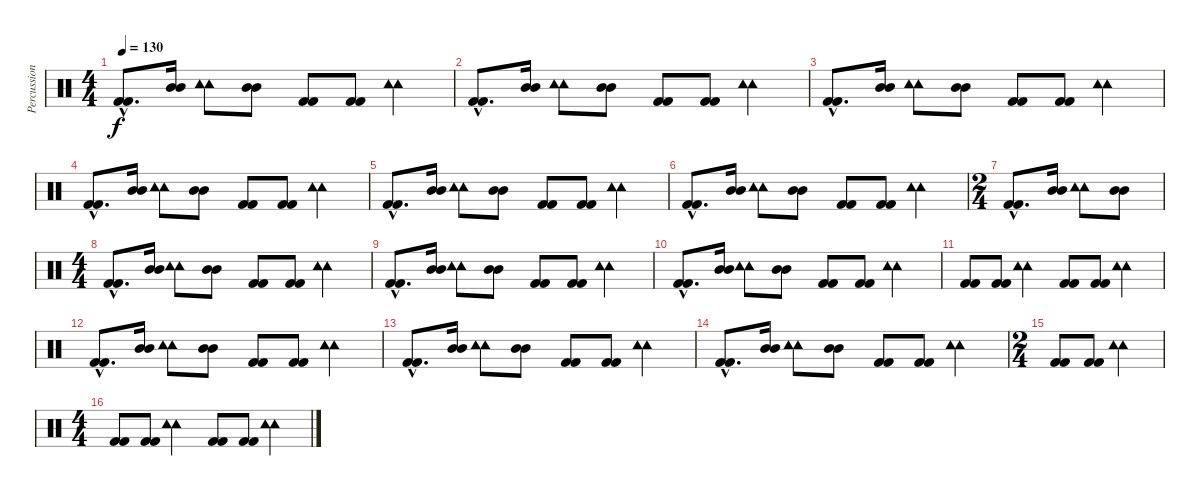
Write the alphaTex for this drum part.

\track ("Percussion" "Percussion") {instrument percussion}
\staff {score}
\articulation defaults
\ts (4 4)
\tempo 130
\clef neutral
\ks c
("Kick (hit) 2"{hac} "Kick (hit) 2"{hac}).8{d dy f} ("Mid Tom (hit)" "Mid Tom (hit)").16 ("Tambourine (hit)" "Tambourine (hit)").8 ("Mid Tom (hit)" "Mid Tom (hit)").8 ("Kick (hit) 2" "Kick (hit) 2").8 ("Kick (hit) 2" "Kick (hit) 2").8 ("Tambourine (hit)" "Tambourine (hit)").4 |
("Kick (hit) 2"{hac} "Kick (hit) 2"{hac}).8{d} ("Mid Tom (hit)" "Mid Tom (hit)").16 ("Tambourine (hit)" "Tambourine (hit)").8 ("Mid Tom (hit)" "Mid Tom (hit)").8 ("Kick (hit) 2" "Kick (hit) 2").8 ("Kick (hit) 2" "Kick (hit) 2").8 ("Tambourine (hit)" "Tambourine (hit)").4 |
("Kick (hit) 2"{hac} "Kick (hit) 2"{hac}).8{d} ("Mid Tom (hit)" "Mid Tom (hit)").16 ("Tambourine (hit)" "Tambourine (hit)").8 ("Mid Tom (hit)" "Mid Tom (hit)").8 ("Kick (hit) 2" "Kick (hit) 2").8 ("Kick (hit) 2" "Kick (hit) 2").8 ("Tambourine (hit)" "Tambourine (hit)").4 |
("Kick (hit) 2"{hac} "Kick (hit) 2"{hac}).8{d} ("Mid Tom (hit)" "Mid Tom (hit)").16 ("Tambourine (hit)" "Tambourine (hit)").8 ("Mid Tom (hit)" "Mid Tom (hit)").8 ("Kick (hit) 2" "Kick (hit) 2").8 ("Kick (hit) 2" "Kick (hit) 2").8 ("Tambourine (hit)" "Tambourine (hit)").4 |
("Kick (hit) 2"{hac} "Kick (hit) 2"{hac}).8{d} ("Mid Tom (hit)" "Mid Tom (hit)").16 ("Tambourine (hit)" "Tambourine (hit)").8 ("Mid Tom (hit)" "Mid Tom (hit)").8 ("Kick (hit) 2" "Kick (hit) 2").8 ("Kick (hit) 2" "Kick (hit) 2").8 ("Tambourine (hit)" "Tambourine (hit)").4 |
("Kick (hit) 2"{hac} "Kick (hit) 2"{hac}).8{d} ("Mid Tom (hit)" "Mid Tom (hit)").16 ("Tambourine (hit)" "Tambourine (hit)").8 ("Mid Tom (hit)" "Mid Tom (hit)").8 ("Kick (hit) 2" "Kick (hit) 2").8 ("Kick (hit) 2" "Kick (hit) 2").8 ("Tambourine (hit)" "Tambourine (hit)").4 |
\ts (2 4)
("Kick (hit) 2"{hac} "Kick (hit) 2"{hac}).8{d} ("Mid Tom (hit)" "Mid Tom (hit)").16 ("Tambourine (hit)" "Tambourine (hit)").8 ("Mid Tom (hit)" "Mid Tom (hit)").8 |
\ts (4 4)
("Kick (hit) 2"{hac} "Kick (hit) 2"{hac}).8{d} ("Mid Tom (hit)" "Mid Tom (hit)").16 ("Tambourine (hit)" "Tambourine (hit)").8 ("Mid Tom (hit)" "Mid Tom (hit)").8 ("Kick (hit) 2" "Kick (hit) 2").8 ("Kick (hit) 2" "Kick (hit) 2").8 ("Tambourine (hit)" "Tambourine (hit)").4 |
("Kick (hit) 2"{hac} "Kick (hit) 2"{hac}).8{d} ("Mid Tom (hit)" "Mid Tom (hit)").16 ("Tambourine (hit)" "Tambourine (hit)").8 ("Mid Tom (hit)" "Mid Tom (hit)").8 ("Kick (hit) 2" "Kick (hit) 2").8 ("Kick (hit) 2" "Kick (hit) 2").8 ("Tambourine (hit)" "Tambourine (hit)").4 |
("Kick (hit) 2"{hac} "Kick (hit) 2"{hac}).8{d} ("Mid Tom (hit)" "Mid Tom (hit)").16 ("Tambourine (hit)" "Tambourine (hit)").8 ("Mid Tom (hit)" "Mid Tom (hit)").8 ("Kick (hit) 2" "Kick (hit) 2").8 ("Kick (hit) 2" "Kick (hit) 2").8 ("Tambourine (hit)" "Tambourine (hit)").4 |
("Kick (hit) 2" "Kick (hit) 2").8 ("Kick (hit) 2" "Kick (hit) 2").8 ("Tambourine (hit)" "Tambourine (hit)").4 ("Kick (hit) 2" "Kick (hit) 2").8 ("Kick (hit) 2" "Kick (hit) 2").8 ("Tambourine (hit)" "Tambourine (hit)").4 |
("Kick (hit) 2"{hac} "Kick (hit) 2"{hac}).8{d} ("Mid Tom (hit)" "Mid Tom (hit)").16 ("Tambourine (hit)" "Tambourine (hit)").8 ("Mid Tom (hit)" "Mid Tom (hit)").8 ("Kick (hit) 2" "Kick (hit) 2").8 ("Kick (hit) 2" "Kick (hit) 2").8 ("Tambourine (hit)" "Tambourine (hit)").4 |
("Kick (hit) 2"{hac} "Kick (hit) 2"{hac}).8{d} ("Mid Tom (hit)" "Mid Tom (hit)").16 ("Tambourine (hit)" "Tambourine (hit)").8 ("Mid Tom (hit)" "Mid Tom (hit)").8 ("Kick (hit) 2" "Kick (hit) 2").8 ("Kick (hit) 2" "Kick (hit) 2").8 ("Tambourine (hit)" "Tambourine (hit)").4 |
("Kick (hit) 2"{hac} "Kick (hit) 2"{hac}).8{d} ("Mid Tom (hit)" "Mid Tom (hit)").16 ("Tambourine (hit)" "Tambourine (hit)").8 ("Mid Tom (hit)" "Mid Tom (hit)").8 ("Kick (hit) 2" "Kick (hit) 2").8 ("Kick (hit) 2" "Kick (hit) 2").8 ("Tambourine (hit)" "Tambourine (hit)").4 |
\ts (2 4)
("Kick (hit) 2" "Kick (hit) 2").8 ("Kick (hit) 2" "Kick (hit) 2").8 ("Tambourine (hit)" "Tambourine (hit)").4 |
\ts (4 4)
("Kick (hit) 2" "Kick (hit) 2").8 ("Kick (hit) 2" "Kick (hit) 2").8 ("Tambourine (hit)" "Tambourine (hit)").4 ("Kick (hit) 2" "Kick (hit) 2").8 ("Kick (hit) 2" "Kick (hit) 2").8 ("Tambourine (hit)" "Tambourine (hit)").4
